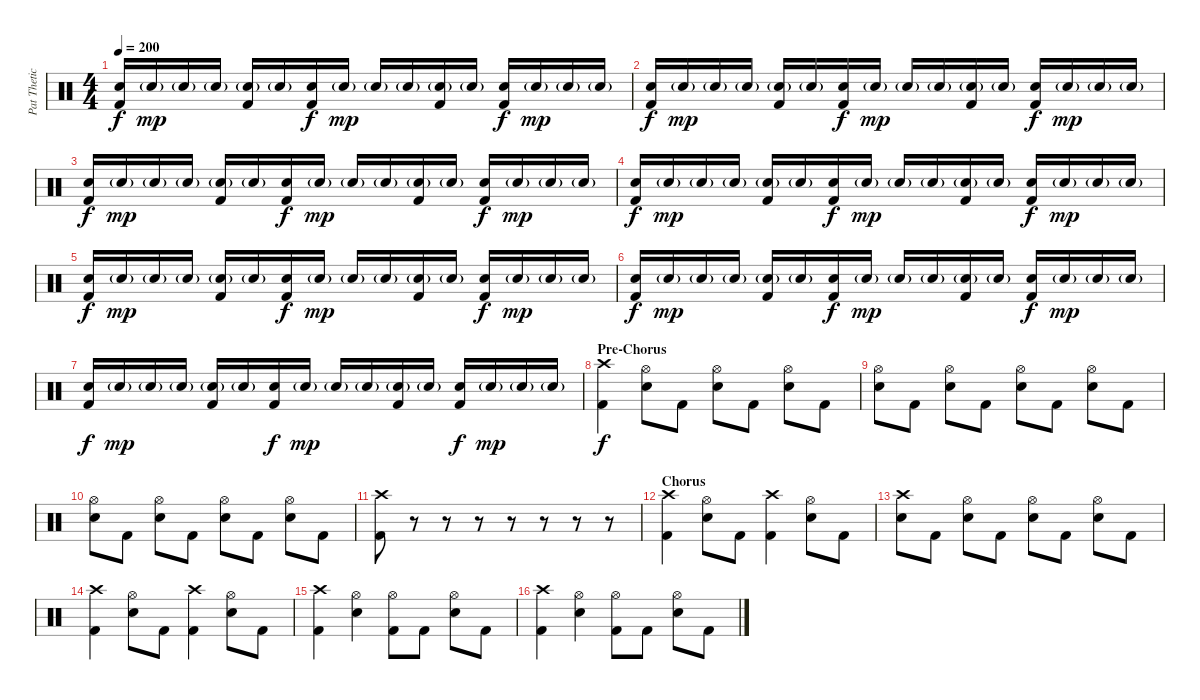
\track ("Pat Thetic (Drums)" "Pat Thetic") {instrument percussion}
\staff {score}
\articulation defaults
\ts (4 4)
\tempo 200
\clef neutral
\ks c
("Electric Snare (hit)" "Kick (hit) 2").16{dy f} "Electric Snare (hit)"{g}.16{dy mp} "Electric Snare (hit)"{g}.16 "Electric Snare (hit)"{g}.16 ("Electric Snare (hit)"{g} "Kick (hit) 2").16 "Electric Snare (hit)"{g}.16 ("Electric Snare (hit)" "Kick (hit) 2").16{dy f} "Electric Snare (hit)"{g}.16{dy mp} "Electric Snare (hit)"{g}.16 "Electric Snare (hit)"{g}.16 ("Electric Snare (hit)"{g} "Kick (hit) 2").16 "Electric Snare (hit)"{g}.16 ("Electric Snare (hit)" "Kick (hit) 2").16{dy f} "Electric Snare (hit)"{g}.16{dy mp} "Electric Snare (hit)"{g}.16 "Electric Snare (hit)"{g}.16 |
("Electric Snare (hit)" "Kick (hit) 2").16{dy f} "Electric Snare (hit)"{g}.16{dy mp} "Electric Snare (hit)"{g}.16 "Electric Snare (hit)"{g}.16 ("Electric Snare (hit)"{g} "Kick (hit) 2").16 "Electric Snare (hit)"{g}.16 ("Electric Snare (hit)" "Kick (hit) 2").16{dy f} "Electric Snare (hit)"{g}.16{dy mp} "Electric Snare (hit)"{g}.16 "Electric Snare (hit)"{g}.16 ("Electric Snare (hit)"{g} "Kick (hit) 2").16 "Electric Snare (hit)"{g}.16 ("Electric Snare (hit)" "Kick (hit) 2").16{dy f} "Electric Snare (hit)"{g}.16{dy mp} "Electric Snare (hit)"{g}.16 "Electric Snare (hit)"{g}.16 |
("Electric Snare (hit)" "Kick (hit) 2").16{dy f} "Electric Snare (hit)"{g}.16{dy mp} "Electric Snare (hit)"{g}.16 "Electric Snare (hit)"{g}.16 ("Electric Snare (hit)"{g} "Kick (hit) 2").16 "Electric Snare (hit)"{g}.16 ("Electric Snare (hit)" "Kick (hit) 2").16{dy f} "Electric Snare (hit)"{g}.16{dy mp} "Electric Snare (hit)"{g}.16 "Electric Snare (hit)"{g}.16 ("Electric Snare (hit)"{g} "Kick (hit) 2").16 "Electric Snare (hit)"{g}.16 ("Electric Snare (hit)" "Kick (hit) 2").16{dy f} "Electric Snare (hit)"{g}.16{dy mp} "Electric Snare (hit)"{g}.16 "Electric Snare (hit)"{g}.16 |
("Electric Snare (hit)" "Kick (hit) 2").16{dy f} "Electric Snare (hit)"{g}.16{dy mp} "Electric Snare (hit)"{g}.16 "Electric Snare (hit)"{g}.16 ("Electric Snare (hit)"{g} "Kick (hit) 2").16 "Electric Snare (hit)"{g}.16 ("Electric Snare (hit)" "Kick (hit) 2").16{dy f} "Electric Snare (hit)"{g}.16{dy mp} "Electric Snare (hit)"{g}.16 "Electric Snare (hit)"{g}.16 ("Electric Snare (hit)"{g} "Kick (hit) 2").16 "Electric Snare (hit)"{g}.16 ("Electric Snare (hit)" "Kick (hit) 2").16{dy f} "Electric Snare (hit)"{g}.16{dy mp} "Electric Snare (hit)"{g}.16 "Electric Snare (hit)"{g}.16 |
("Electric Snare (hit)" "Kick (hit) 2").16{dy f} "Electric Snare (hit)"{g}.16{dy mp} "Electric Snare (hit)"{g}.16 "Electric Snare (hit)"{g}.16 ("Electric Snare (hit)"{g} "Kick (hit) 2").16 "Electric Snare (hit)"{g}.16 ("Electric Snare (hit)" "Kick (hit) 2").16{dy f} "Electric Snare (hit)"{g}.16{dy mp} "Electric Snare (hit)"{g}.16 "Electric Snare (hit)"{g}.16 ("Electric Snare (hit)"{g} "Kick (hit) 2").16 "Electric Snare (hit)"{g}.16 ("Electric Snare (hit)" "Kick (hit) 2").16{dy f} "Electric Snare (hit)"{g}.16{dy mp} "Electric Snare (hit)"{g}.16 "Electric Snare (hit)"{g}.16 |
("Electric Snare (hit)" "Kick (hit) 2").16{dy f} "Electric Snare (hit)"{g}.16{dy mp} "Electric Snare (hit)"{g}.16 "Electric Snare (hit)"{g}.16 ("Electric Snare (hit)"{g} "Kick (hit) 2").16 "Electric Snare (hit)"{g}.16 ("Electric Snare (hit)" "Kick (hit) 2").16{dy f} "Electric Snare (hit)"{g}.16{dy mp} "Electric Snare (hit)"{g}.16 "Electric Snare (hit)"{g}.16 ("Electric Snare (hit)"{g} "Kick (hit) 2").16 "Electric Snare (hit)"{g}.16 ("Electric Snare (hit)" "Kick (hit) 2").16{dy f} "Electric Snare (hit)"{g}.16{dy mp} "Electric Snare (hit)"{g}.16 "Electric Snare (hit)"{g}.16 |
("Electric Snare (hit)" "Kick (hit) 2").16{dy f} "Electric Snare (hit)"{g}.16{dy mp} "Electric Snare (hit)"{g}.16 "Electric Snare (hit)"{g}.16 ("Electric Snare (hit)"{g} "Kick (hit) 2").16 "Electric Snare (hit)"{g}.16 ("Electric Snare (hit)" "Kick (hit) 2").16{dy f} "Electric Snare (hit)"{g}.16{dy mp} "Electric Snare (hit)"{g}.16 "Electric Snare (hit)"{g}.16 ("Electric Snare (hit)"{g} "Kick (hit) 2").16 "Electric Snare (hit)"{g}.16 ("Electric Snare (hit)" "Kick (hit) 2").16{dy f} "Electric Snare (hit)"{g}.16{dy mp} "Electric Snare (hit)"{g}.16 "Electric Snare (hit)"{g}.16 |
\section ("" "Pre-Chorus")
("Crash high (hit)" "Kick (hit) 2").4{dy f} ("Hi-Hat (open)" "Electric Snare (hit)").8 "Kick (hit) 2".8 ("Hi-Hat (open)" "Electric Snare (hit)").8 "Kick (hit) 2".8 ("Hi-Hat (open)" "Electric Snare (hit)").8 "Kick (hit) 2".8 |
("Hi-Hat (open)" "Electric Snare (hit)").8 "Kick (hit) 2".8 ("Hi-Hat (open)" "Electric Snare (hit)").8 "Kick (hit) 2".8 ("Hi-Hat (open)" "Electric Snare (hit)").8 "Kick (hit) 2".8 ("Hi-Hat (open)" "Electric Snare (hit)").8 "Kick (hit) 2".8 |
("Hi-Hat (open)" "Electric Snare (hit)").8 "Kick (hit) 2".8 ("Hi-Hat (open)" "Electric Snare (hit)").8 "Kick (hit) 2".8 ("Hi-Hat (open)" "Electric Snare (hit)").8 "Kick (hit) 2".8 ("Hi-Hat (open)" "Electric Snare (hit)").8 "Kick (hit) 2".8 |
("Crash high (hit)" "Kick (hit) 2").8 r.8 r.8 r.8 r.8 r.8 r.8 r.8 |
\section ("" "Chorus")
("Crash high (hit)" "Kick (hit) 2").4 ("Hi-Hat (open)" "Electric Snare (hit)").8 "Kick (hit) 2".8 ("Crash high (hit)" "Kick (hit) 2").4 ("Hi-Hat (open)" "Electric Snare (hit)").8 "Kick (hit) 2".8 |
("Crash high (hit)" "Electric Snare (hit)").8 "Kick (hit) 2".8 ("Hi-Hat (open)" "Electric Snare (hit)").8 "Kick (hit) 2".8 ("Hi-Hat (open)" "Electric Snare (hit)").8 "Kick (hit) 2".8 ("Hi-Hat (open)" "Electric Snare (hit)").8 "Kick (hit) 2".8 |
("Crash high (hit)" "Kick (hit) 2").4 ("Hi-Hat (open)" "Electric Snare (hit)").8 "Kick (hit) 2".8 ("Crash high (hit)" "Kick (hit) 2").4 ("Hi-Hat (open)" "Electric Snare (hit)").8 "Kick (hit) 2".8 |
("Crash high (hit)" "Kick (hit) 2").4 ("Hi-Hat (open)" "Electric Snare (hit)").4 ("Hi-Hat (open)" "Kick (hit) 2").8 "Kick (hit) 2".8 ("Hi-Hat (open)" "Electric Snare (hit)").8 "Kick (hit) 2".8 |
("Crash high (hit)" "Kick (hit) 2").4 ("Hi-Hat (open)" "Electric Snare (hit)").4 ("Hi-Hat (open)" "Kick (hit) 2").8 "Kick (hit) 2".8 ("Hi-Hat (open)" "Electric Snare (hit)").8 "Kick (hit) 2".8
